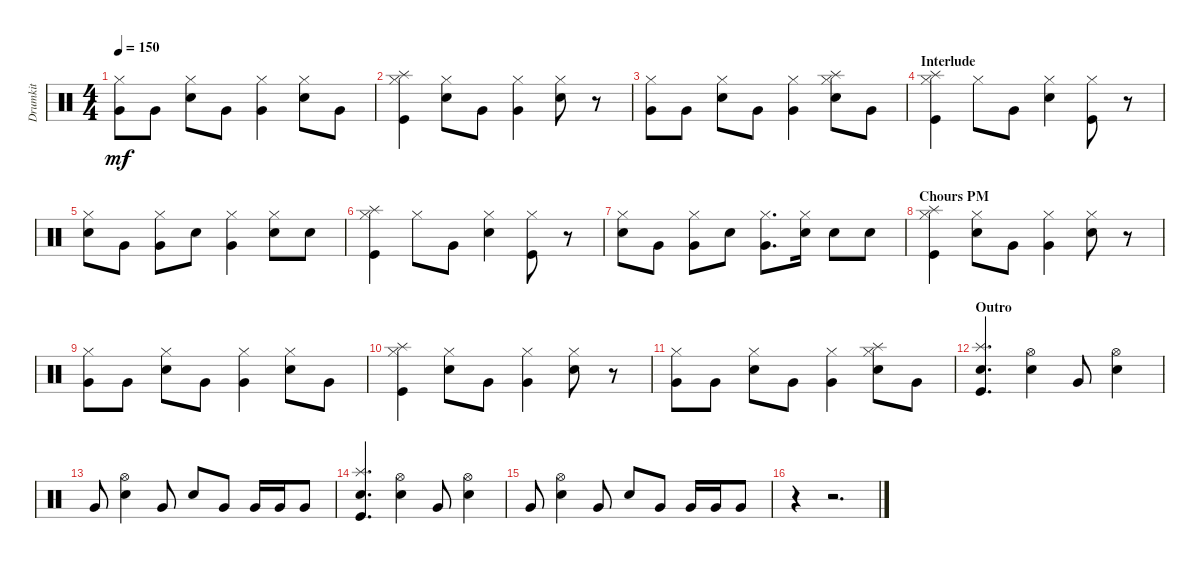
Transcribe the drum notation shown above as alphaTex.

\track ("Drumkit" "Drumkit") {instrument percussion}
\staff {score}
\articulation defaults
\ts (4 4)
\tempo 150
\clef neutral
\ks c
("Hi-Hat (closed)" "Very Low Tom (hit)").8{dy mf} "Very Low Tom (hit)".8 ("Snare (hit) 2" "Hi-Hat (closed)").8 "Very Low Tom (hit)".8 ("Very Low Tom (hit)" "Hi-Hat (closed)").4 ("Snare (hit) 2" "Hi-Hat (closed)").8 "Very Low Tom (hit)".8 |
("Splash (hit)" "Kick (hit)" "Hi-Hat (closed)").4 ("Snare (hit) 2" "Hi-Hat (closed)").8 "Very Low Tom (hit)".8 ("Very Low Tom (hit)" "Hi-Hat (closed)").4 ("Snare (hit) 2" "Hi-Hat (closed)").8 r.8 |
("Hi-Hat (closed)" "Very Low Tom (hit)").8 "Very Low Tom (hit)".8 ("Snare (hit) 2" "Hi-Hat (closed)").8 "Very Low Tom (hit)".8 ("Very Low Tom (hit)" "Hi-Hat (closed)").4 ("Snare (hit) 2" "Hi-Hat (closed)" "Splash (hit)").8 "Very Low Tom (hit)".8 |
\section ("" "Interlude")
("Splash (hit)" "Kick (hit)" "Hi-Hat (closed)").4 "Hi-Hat (closed)".8 "Very Low Tom (hit)".8 ("Hi-Hat (closed)" "Snare (hit) 2").4 ("Hi-Hat (closed)" "Kick (hit)").8 r.8 |
("Hi-Hat (closed)" "Snare (hit) 2").8 "Very Low Tom (hit)".8 ("Hi-Hat (closed)" "Very Low Tom (hit)").8 "Snare (hit) 2".8 ("Very Low Tom (hit)" "Hi-Hat (closed)").4 ("Snare (hit) 2" "Hi-Hat (closed)").8 "Snare (hit) 2".8 |
("Splash (hit)" "Kick (hit)" "Hi-Hat (closed)").4 "Hi-Hat (closed)".8 "Very Low Tom (hit)".8 ("Hi-Hat (closed)" "Snare (hit) 2").4 ("Hi-Hat (closed)" "Kick (hit)").8 r.8 |
("Hi-Hat (closed)" "Snare (hit) 2").8 "Very Low Tom (hit)".8 ("Hi-Hat (closed)" "Very Low Tom (hit)").8 "Snare (hit) 2".8 ("Very Low Tom (hit)" "Hi-Hat (closed)").8{d} ("Snare (hit) 2" "Hi-Hat (closed)").16 "Snare (hit) 2".8 "Snare (hit) 2".8 |
\section ("" "Chours PM")
("Splash (hit)" "Kick (hit)" "Hi-Hat (closed)").4 ("Snare (hit) 2" "Hi-Hat (closed)").8 "Very Low Tom (hit)".8 ("Very Low Tom (hit)" "Hi-Hat (closed)").4 ("Snare (hit) 2" "Hi-Hat (closed)").8 r.8 |
("Hi-Hat (closed)" "Very Low Tom (hit)").8 "Very Low Tom (hit)".8 ("Snare (hit) 2" "Hi-Hat (closed)").8 "Very Low Tom (hit)".8 ("Very Low Tom (hit)" "Hi-Hat (closed)").4 ("Snare (hit) 2" "Hi-Hat (closed)").8 "Very Low Tom (hit)".8 |
("Splash (hit)" "Kick (hit)" "Hi-Hat (closed)").4 ("Snare (hit) 2" "Hi-Hat (closed)").8 "Very Low Tom (hit)".8 ("Very Low Tom (hit)" "Hi-Hat (closed)").4 ("Snare (hit) 2" "Hi-Hat (closed)").8 r.8 |
("Hi-Hat (closed)" "Very Low Tom (hit)").8 "Very Low Tom (hit)".8 ("Snare (hit) 2" "Hi-Hat (closed)").8 "Very Low Tom (hit)".8 ("Very Low Tom (hit)" "Hi-Hat (closed)").4 ("Snare (hit) 2" "Hi-Hat (closed)" "Splash (hit)").8 "Very Low Tom (hit)".8 |
\section ("" "Outro")
("Splash (hit)" "Kick (hit)" "Snare (hit) 2").4{d} ("Hi-Hat (open)" "Snare (hit) 2").4 "Very Low Tom (hit)".8 ("Snare (hit) 2" "Hi-Hat (open)").4 |
"Very Low Tom (hit)".8 ("Snare (hit) 2" "Hi-Hat (open)").4 "Very Low Tom (hit)".8 "Snare (hit) 2".8 "Very Low Tom (hit)".8 "Very Low Tom (hit)".16 "Very Low Tom (hit)".16 "Very Low Tom (hit)".8 |
("Splash (hit)" "Kick (hit)" "Snare (hit) 2").4{d} ("Hi-Hat (open)" "Snare (hit) 2").4 "Very Low Tom (hit)".8 ("Snare (hit) 2" "Hi-Hat (open)").4 |
"Very Low Tom (hit)".8 ("Snare (hit) 2" "Hi-Hat (open)").4 "Very Low Tom (hit)".8 "Snare (hit) 2".8 "Very Low Tom (hit)".8 "Very Low Tom (hit)".16 "Very Low Tom (hit)".16 "Very Low Tom (hit)".8 |
r.4 r.2{d}
